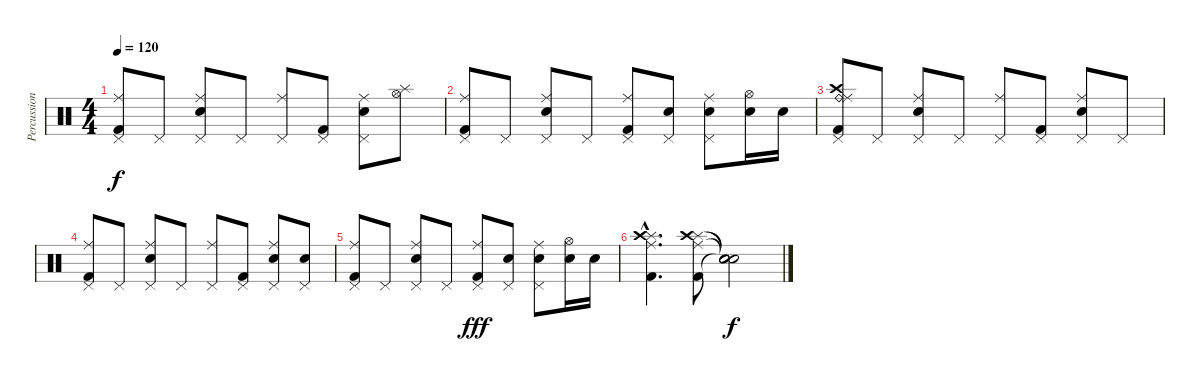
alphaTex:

\track ("Percussion" "Percussion") {instrument percussion}
\staff {score}
\articulation defaults
\ts (4 4)
\tempo 120
\clef neutral
\ks c
("Pedal Hi-Hat (hit)" "Kick (hit) 2" "Ride (middle)").8{dy f} "Pedal Hi-Hat (hit)".8 ("Pedal Hi-Hat (hit)" "Electric Snare (hit)" "Ride (middle)").8 "Pedal Hi-Hat (hit)".8 ("Pedal Hi-Hat (hit)" "Ride (middle)").8 ("Pedal Hi-Hat (hit)" "Kick (hit) 2").8 ("Pedal Hi-Hat (hit)" "Electric Snare (hit)" "Ride (middle)").8 ("Hi-Hat (open)" "Splash (hit)").8 |
("Pedal Hi-Hat (hit)" "Kick (hit) 2" "Ride (middle)").8 "Pedal Hi-Hat (hit)".8 ("Pedal Hi-Hat (hit)" "Electric Snare (hit)" "Ride (middle)").8 "Pedal Hi-Hat (hit)".8 ("Pedal Hi-Hat (hit)" "Kick (hit) 2" "Ride (middle)").8 ("Pedal Hi-Hat (hit)" "Electric Snare (hit)").8 ("Pedal Hi-Hat (hit)" "Electric Snare (hit)" "Ride (middle)").8 ("Hi-Hat (open)" "Electric Snare (hit)").16 "Electric Snare (hit)".16 |
("Pedal Hi-Hat (hit)" "Kick (hit) 2" "Crash high (hit)" "Ride (bell)" "Ride (middle)").8 "Pedal Hi-Hat (hit)".8 ("Pedal Hi-Hat (hit)" "Electric Snare (hit)" "Ride (middle)").8 "Pedal Hi-Hat (hit)".8 ("Pedal Hi-Hat (hit)" "Ride (middle)").8 ("Pedal Hi-Hat (hit)" "Kick (hit) 2").8 ("Pedal Hi-Hat (hit)" "Electric Snare (hit)" "Ride (middle)").8 "Pedal Hi-Hat (hit)".8 |
("Pedal Hi-Hat (hit)" "Kick (hit) 2" "Ride (middle)").8 "Pedal Hi-Hat (hit)".8 ("Pedal Hi-Hat (hit)" "Electric Snare (hit)" "Ride (middle)").8 "Pedal Hi-Hat (hit)".8 ("Pedal Hi-Hat (hit)" "Ride (middle)").8 ("Pedal Hi-Hat (hit)" "Kick (hit) 2").8 ("Pedal Hi-Hat (hit)" "Electric Snare (hit)" "Ride (middle)").8 ("Pedal Hi-Hat (hit)" "Electric Snare (hit)").8 |
("Pedal Hi-Hat (hit)" "Kick (hit) 2" "Ride (middle)").8 "Pedal Hi-Hat (hit)".8 ("Pedal Hi-Hat (hit)" "Electric Snare (hit)" "Ride (middle)").8 "Pedal Hi-Hat (hit)".8 ("Pedal Hi-Hat (hit)" "Kick (hit) 2" "Ride (middle)").8{dy fff} ("Pedal Hi-Hat (hit)" "Electric Snare (hit)").8 ("Pedal Hi-Hat (hit)" "Electric Snare (hit)" "Ride (middle)").8 ("Hi-Hat (open)" "Electric Snare (hit)").16 "Electric Snare (hit)".16 |
("Kick (hit) 2"{hac} "Splash (hit)"{hac} "Crash high (hit)"{hac} "Ride (middle)"{hac}).4{d} ("Kick (hit) 2" "Splash (hit)" "Crash high (hit)" "Ride (middle)").8 ("Snare (hit)"{t} "Snare (hit)"{t} "Snare (hit)"{t} "Snare (hit)"{t}).2{dy f}
